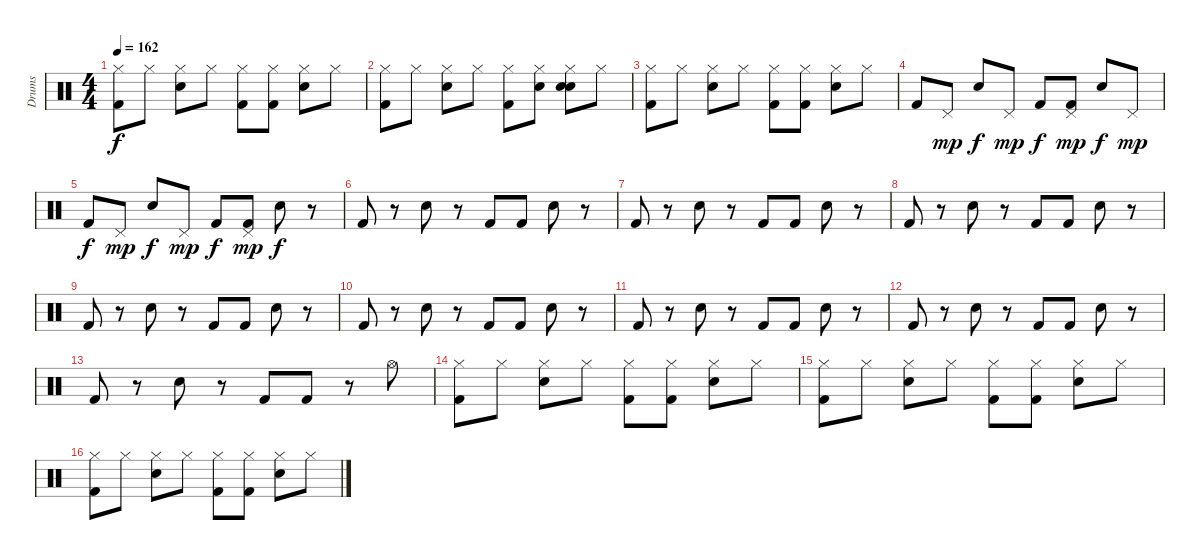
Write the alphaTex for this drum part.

\track ("Drums" "Drums") {instrument percussion}
\staff {score}
\articulation defaults
\ts (4 4)
\tempo 162
\clef neutral
\ks c
("Hi-Hat (closed)" "Kick (hit) 2").8{dy f} "Hi-Hat (closed)".8 ("Hi-Hat (closed)" "Snare (hit) 2").8 "Hi-Hat (closed)".8 ("Hi-Hat (closed)" "Kick (hit) 2").8 ("Hi-Hat (closed)" "Kick (hit) 2").8 ("Hi-Hat (closed)" "Snare (hit) 2").8 "Hi-Hat (closed)".8 |
("Hi-Hat (closed)" "Kick (hit) 2").8 "Hi-Hat (closed)".8 ("Hi-Hat (closed)" "Snare (hit) 2").8 "Hi-Hat (closed)".8 ("Hi-Hat (closed)" "Kick (hit) 2").8 ("Hi-Hat (closed)" "Hand Clap (hit)").8 ("Hi-Hat (closed)" "Snare (hit) 2" "Hand Clap (hit)").8 "Hi-Hat (closed)".8 |
("Hi-Hat (closed)" "Kick (hit) 2").8 "Hi-Hat (closed)".8 ("Hi-Hat (closed)" "Snare (hit) 2").8 "Hi-Hat (closed)".8 ("Hi-Hat (closed)" "Kick (hit) 2").8 ("Hi-Hat (closed)" "Kick (hit) 2").8 ("Hi-Hat (closed)" "Snare (hit) 2").8 "Hi-Hat (closed)".8 |
"Kick (hit) 2".8 "Pedal Hi-Hat (hit)".8{dy mp} "Snare (hit) 2".8{dy f} "Pedal Hi-Hat (hit)".8{dy mp} "Kick (hit) 2".8{dy f} ("Pedal Hi-Hat (hit)" "Kick (hit) 2").8{dy mp} "Snare (hit) 2".8{dy f} "Pedal Hi-Hat (hit)".8{dy mp} |
"Kick (hit) 2".8{dy f} "Pedal Hi-Hat (hit)".8{dy mp} "Snare (hit) 2".8{dy f} "Pedal Hi-Hat (hit)".8{dy mp} "Kick (hit) 2".8{dy f} ("Pedal Hi-Hat (hit)" "Kick (hit) 2").8{dy mp} "Snare (hit) 2".8{dy f} r.8 |
"Kick (hit) 2".8 r.8 "Snare (hit) 2".8 r.8 "Kick (hit) 2".8 "Kick (hit) 2".8 "Snare (hit) 2".8 r.8 |
"Kick (hit) 2".8 r.8 "Snare (hit) 2".8 r.8 "Kick (hit) 2".8 "Kick (hit) 2".8 "Snare (hit) 2".8 r.8 |
"Kick (hit) 2".8 r.8 "Snare (hit) 2".8 r.8 "Kick (hit) 2".8 "Kick (hit) 2".8 "Snare (hit) 2".8 r.8 |
"Kick (hit) 2".8 r.8 "Snare (hit) 2".8 r.8 "Kick (hit) 2".8 "Kick (hit) 2".8 "Snare (hit) 2".8 r.8 |
"Kick (hit) 2".8 r.8 "Snare (hit) 2".8 r.8 "Kick (hit) 2".8 "Kick (hit) 2".8 "Snare (hit) 2".8 r.8 |
"Kick (hit) 2".8 r.8 "Snare (hit) 2".8 r.8 "Kick (hit) 2".8 "Kick (hit) 2".8 "Snare (hit) 2".8 r.8 |
"Kick (hit) 2".8 r.8 "Snare (hit) 2".8 r.8 "Kick (hit) 2".8 "Kick (hit) 2".8 "Snare (hit) 2".8 r.8 |
"Kick (hit) 2".8 r.8 "Snare (hit) 2".8 r.8 "Kick (hit) 2".8 "Kick (hit) 2".8 r.8 "Hi-Hat (open)".8 |
("Hi-Hat (closed)" "Kick (hit) 2").8 "Hi-Hat (closed)".8 ("Hi-Hat (closed)" "Snare (hit) 2").8 "Hi-Hat (closed)".8 ("Hi-Hat (closed)" "Kick (hit) 2").8 ("Hi-Hat (closed)" "Kick (hit) 2").8 ("Hi-Hat (closed)" "Snare (hit) 2").8 "Hi-Hat (closed)".8 |
("Hi-Hat (closed)" "Kick (hit) 2").8 "Hi-Hat (closed)".8 ("Hi-Hat (closed)" "Snare (hit) 2").8 "Hi-Hat (closed)".8 ("Hi-Hat (closed)" "Kick (hit) 2").8 ("Hi-Hat (closed)" "Kick (hit) 2").8 ("Hi-Hat (closed)" "Snare (hit) 2").8 "Hi-Hat (closed)".8 |
("Hi-Hat (closed)" "Kick (hit) 2").8 "Hi-Hat (closed)".8 ("Hi-Hat (closed)" "Snare (hit) 2").8 "Hi-Hat (closed)".8 ("Hi-Hat (closed)" "Kick (hit) 2").8 ("Hi-Hat (closed)" "Kick (hit) 2").8 ("Hi-Hat (closed)" "Snare (hit) 2").8 "Hi-Hat (closed)".8
